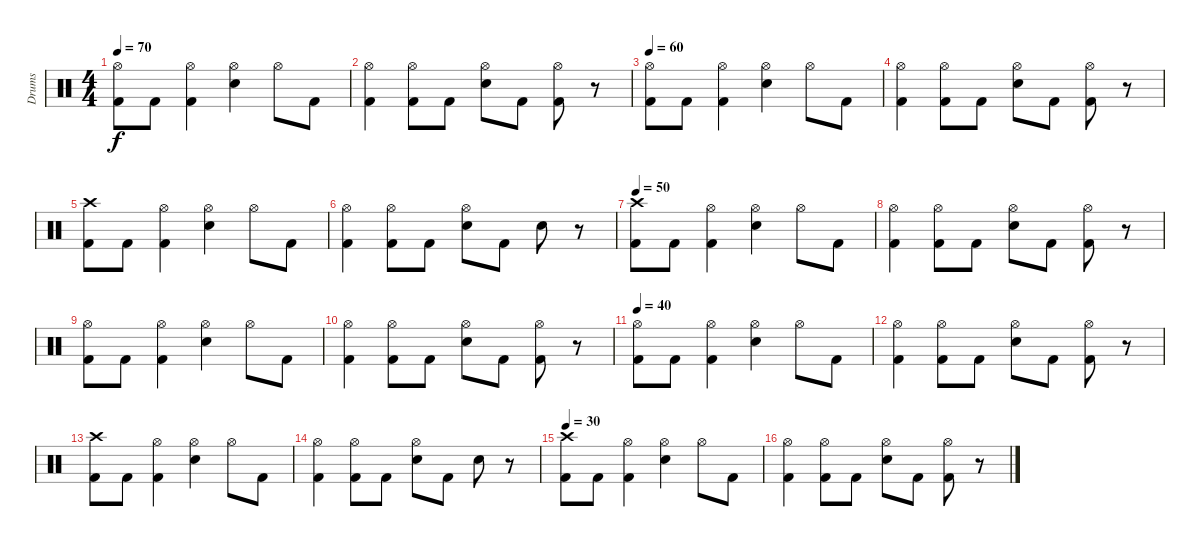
\track ("Drums" "Drums") {instrument percussion}
\staff {score}
\articulation defaults
\ts (4 4)
\tempo 70
\clef neutral
\ks c
("Hi-Hat (open)" "Kick (hit) 2").8{dy f} "Kick (hit) 2".8 ("Hi-Hat (open)" "Kick (hit) 2").4 ("Hi-Hat (open)" "Snare (hit) 2").4 "Hi-Hat (open)".8 "Kick (hit) 2".8 |
("Hi-Hat (open)" "Kick (hit) 2").4 ("Hi-Hat (open)" "Kick (hit) 2").8 "Kick (hit) 2".8 ("Hi-Hat (open)" "Snare (hit) 2").8 "Kick (hit) 2".8 ("Hi-Hat (open)" "Kick (hit) 2").8 r.8 |
\tempo 60
("Hi-Hat (open)" "Kick (hit) 2").8 "Kick (hit) 2".8 ("Hi-Hat (open)" "Kick (hit) 2").4 ("Hi-Hat (open)" "Snare (hit) 2").4 "Hi-Hat (open)".8 "Kick (hit) 2".8 |
("Hi-Hat (open)" "Kick (hit) 2").4 ("Hi-Hat (open)" "Kick (hit) 2").8 "Kick (hit) 2".8 ("Hi-Hat (open)" "Snare (hit) 2").8 "Kick (hit) 2".8 ("Hi-Hat (open)" "Kick (hit) 2").8 r.8 |
("Crash high (hit)" "Kick (hit) 2").8 "Kick (hit) 2".8 ("Hi-Hat (open)" "Kick (hit) 2").4 ("Hi-Hat (open)" "Snare (hit) 2").4 "Hi-Hat (open)".8 "Kick (hit) 2".8 |
("Hi-Hat (open)" "Kick (hit) 2").4 ("Hi-Hat (open)" "Kick (hit) 2").8 "Kick (hit) 2".8 ("Hi-Hat (open)" "Snare (hit) 2").8 "Kick (hit) 2".8 "Snare (hit) 2".8 r.8 |
\tempo 50
("Crash high (hit)" "Kick (hit) 2").8 "Kick (hit) 2".8 ("Hi-Hat (open)" "Kick (hit) 2").4 ("Hi-Hat (open)" "Snare (hit) 2").4 "Hi-Hat (open)".8 "Kick (hit) 2".8 |
("Hi-Hat (open)" "Kick (hit) 2").4 ("Hi-Hat (open)" "Kick (hit) 2").8 "Kick (hit) 2".8 ("Hi-Hat (open)" "Snare (hit) 2").8 "Kick (hit) 2".8 ("Hi-Hat (open)" "Kick (hit) 2").8 r.8 |
("Hi-Hat (open)" "Kick (hit) 2").8 "Kick (hit) 2".8 ("Hi-Hat (open)" "Kick (hit) 2").4 ("Hi-Hat (open)" "Snare (hit) 2").4 "Hi-Hat (open)".8 "Kick (hit) 2".8 |
("Hi-Hat (open)" "Kick (hit) 2").4 ("Hi-Hat (open)" "Kick (hit) 2").8 "Kick (hit) 2".8 ("Hi-Hat (open)" "Snare (hit) 2").8 "Kick (hit) 2".8 ("Hi-Hat (open)" "Kick (hit) 2").8 r.8 |
\tempo 40
("Hi-Hat (open)" "Kick (hit) 2").8 "Kick (hit) 2".8 ("Hi-Hat (open)" "Kick (hit) 2").4 ("Hi-Hat (open)" "Snare (hit) 2").4 "Hi-Hat (open)".8 "Kick (hit) 2".8 |
("Hi-Hat (open)" "Kick (hit) 2").4 ("Hi-Hat (open)" "Kick (hit) 2").8 "Kick (hit) 2".8 ("Hi-Hat (open)" "Snare (hit) 2").8 "Kick (hit) 2".8 ("Hi-Hat (open)" "Kick (hit) 2").8 r.8 |
("Crash high (hit)" "Kick (hit) 2").8 "Kick (hit) 2".8 ("Hi-Hat (open)" "Kick (hit) 2").4 ("Hi-Hat (open)" "Snare (hit) 2").4 "Hi-Hat (open)".8 "Kick (hit) 2".8 |
("Hi-Hat (open)" "Kick (hit) 2").4 ("Hi-Hat (open)" "Kick (hit) 2").8 "Kick (hit) 2".8 ("Hi-Hat (open)" "Snare (hit) 2").8 "Kick (hit) 2".8 "Snare (hit) 2".8 r.8 |
\tempo 30
("Crash high (hit)" "Kick (hit) 2").8 "Kick (hit) 2".8 ("Hi-Hat (open)" "Kick (hit) 2").4 ("Hi-Hat (open)" "Snare (hit) 2").4 "Hi-Hat (open)".8 "Kick (hit) 2".8 |
("Hi-Hat (open)" "Kick (hit) 2").4 ("Hi-Hat (open)" "Kick (hit) 2").8 "Kick (hit) 2".8 ("Hi-Hat (open)" "Snare (hit) 2").8 "Kick (hit) 2".8 ("Hi-Hat (open)" "Kick (hit) 2").8 r.8
